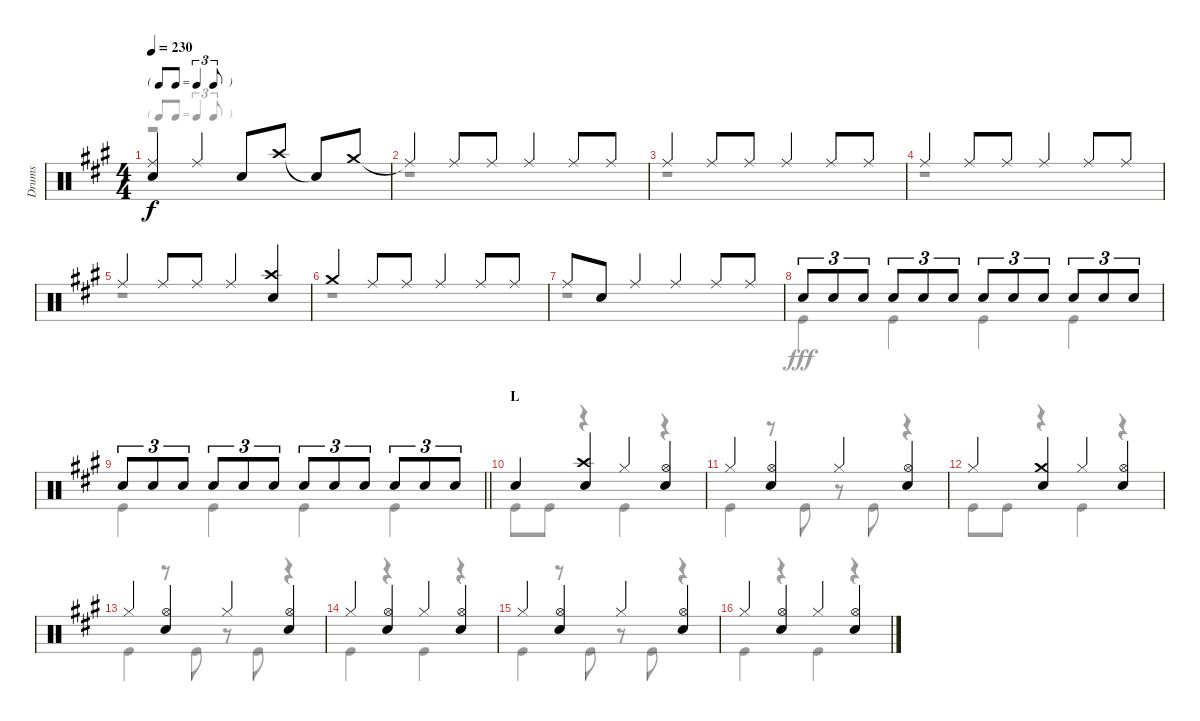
\track ("Drums" "Drums") {instrument percussion}
\staff {score}
\articulation defaults
\voice
\ts (4 4)
\tf triplet8th
\tempo 230
\clef neutral
\ks a
("Ride (middle)" "Snare (hit) 2").4{dy f} "Ride (middle)".4 "Snare (hit) 2".8 "Crash high (hit)".8 "Snare (hit)"{t}.8 "Crash medium (hit)".8 |
"Ride (middle)"{t}.4 "Ride (middle)".8 "Ride (middle)".8 "Ride (middle)".4 "Ride (middle)".8 "Ride (middle)".8 |
"Ride (middle)".4 "Ride (middle)".8 "Ride (middle)".8 "Ride (middle)".4 "Ride (middle)".8 "Ride (middle)".8 |
"Ride (middle)".4 "Ride (middle)".8 "Ride (middle)".8 "Ride (middle)".4 "Ride (middle)".8 "Ride (middle)".8 |
"Ride (middle)".4 "Ride (middle)".8 "Ride (middle)".8 "Ride (middle)".4 ("Crash high (hit)" "Snare (hit) 2").4 |
"Crash medium (hit)".4 "Ride (middle)".8 "Ride (middle)".8 "Ride (middle)".4 "Ride (middle)".8 "Ride (middle)".8 |
"Ride (middle)".8 "Snare (hit) 2".8 "Ride (middle)".4 "Ride (middle)".4 "Ride (middle)".8 "Ride (middle)".8 |
"Snare (hit) 2".8{tu (3 2)} "Snare (hit) 2".8{tu (3 2)} "Snare (hit) 2".8{tu (3 2)} "Snare (hit) 2".8{tu (3 2)} "Snare (hit) 2".8{tu (3 2)} "Snare (hit) 2".8{tu (3 2)} "Snare (hit) 2".8{tu (3 2)} "Snare (hit) 2".8{tu (3 2)} "Snare (hit) 2".8{tu (3 2)} "Snare (hit) 2".8{tu (3 2)} "Snare (hit) 2".8{tu (3 2)} "Snare (hit) 2".8{tu (3 2)} |
\barLineRight lightlight "Snare (hit) 2".8{tu (3 2)} "Snare (hit) 2".8{tu (3 2)} "Snare (hit) 2".8{tu (3 2)} "Snare (hit) 2".8{tu (3 2)} "Snare (hit) 2".8{tu (3 2)} "Snare (hit) 2".8{tu (3 2)} "Snare (hit) 2".8{tu (3 2)} "Snare (hit) 2".8{tu (3 2)} "Snare (hit) 2".8{tu (3 2)} "Snare (hit) 2".8{tu (3 2)} "Snare (hit) 2".8{tu (3 2)} "Snare (hit) 2".8{tu (3 2)}
|
\section ("" "L")
"Snare (hit) 2".4 ("Crash high (hit)" "Snare (hit) 2").4 "Hi-Hat (closed)".4 ("Hi-Hat (open)" "Snare (hit) 2").4 |
"Hi-Hat (closed)".4 ("Hi-Hat (open)" "Snare (hit) 2").4 "Hi-Hat (closed)".4 ("Hi-Hat (open)" "Snare (hit) 2").4 |
"Hi-Hat (closed)".4 ("Crash medium (hit)" "Snare (hit) 2").4 "Hi-Hat (closed)".4 ("Hi-Hat (open)" "Snare (hit) 2").4 |
"Hi-Hat (closed)".4 ("Hi-Hat (open)" "Snare (hit) 2").4 "Hi-Hat (closed)".4 ("Hi-Hat (open)" "Snare (hit) 2").4 |
"Hi-Hat (closed)".4 ("Hi-Hat (open)" "Snare (hit) 2").4 "Hi-Hat (closed)".4 ("Hi-Hat (open)" "Snare (hit) 2").4 |
"Hi-Hat (closed)".4 ("Hi-Hat (open)" "Snare (hit) 2").4 "Hi-Hat (closed)".4 ("Hi-Hat (open)" "Snare (hit) 2").4 |
"Hi-Hat (closed)".4 ("Hi-Hat (open)" "Snare (hit) 2").4 "Hi-Hat (closed)".4 ("Hi-Hat (open)" "Snare (hit) 2").4
\voice
\clef neutral
\ottava regular
\simile none
\ks a
r.1{dy fff} |
r.1 |
r.1 |
r.1 |
r.1 |
r.1 |
r.1 |
"Kick (hit)".4 "Kick (hit)".4 "Kick (hit)".4 "Kick (hit)".4 |
\barLineRight lightlight "Kick (hit)".4 "Kick (hit)".4 "Kick (hit)".4 "Kick (hit)".4
|
"Kick (hit)".8 "Kick (hit)".8 r.4 "Kick (hit)".4 r.4 |
"Kick (hit)".4 r.8 "Kick (hit)".8 r.8 "Kick (hit)".8 r.4 |
"Kick (hit)".8 "Kick (hit)".8 r.4 "Kick (hit)".4 r.4 |
"Kick (hit)".4 r.8 "Kick (hit)".8 r.8 "Kick (hit)".8 r.4 |
"Kick (hit)".4 r.4 "Kick (hit)".4 r.4 |
"Kick (hit)".4 r.8 "Kick (hit)".8 r.8 "Kick (hit)".8 r.4 |
"Kick (hit)".4 r.4 "Kick (hit)".4 r.4
